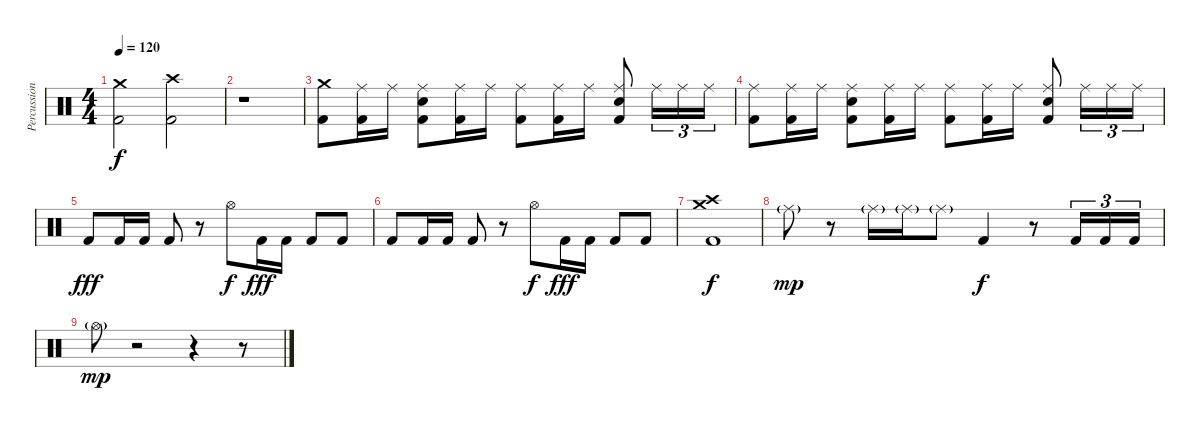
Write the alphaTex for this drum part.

\track ("Percussions" "Percussion") {instrument percussion}
\staff {score}
\articulation defaults
\ts (4 4)
\tempo 120
\clef neutral
\ks c
("Crash medium (hit)" "Kick (hit) 2").2{dy f} ("Crash high (hit)" "Kick (hit) 2").2 |
r.1 |
("Crash medium (hit)" "Kick (hit) 2").8 ("Ride (middle)" "Kick (hit) 2").16 "Ride (middle)".16 ("Ride (middle)" "Electric Snare (hit)" "Kick (hit) 2").8 ("Ride (middle)" "Kick (hit) 2").16 "Ride (middle)".16 ("Ride (middle)" "Kick (hit) 2").8 ("Ride (middle)" "Kick (hit) 2").16 "Ride (middle)".16 ("Ride (middle)" "Electric Snare (hit)" "Kick (hit) 2").8 "Ride (middle)".16{tu (3 2)} "Ride (middle)".16{tu (3 2)} "Ride (middle)".16{tu (3 2)} |
("Ride (middle)" "Kick (hit) 2").8 ("Ride (middle)" "Kick (hit) 2").16 "Ride (middle)".16 ("Ride (middle)" "Electric Snare (hit)" "Kick (hit) 2").8 ("Ride (middle)" "Kick (hit) 2").16 "Ride (middle)".16 ("Ride (middle)" "Kick (hit) 2").8 ("Ride (middle)" "Kick (hit) 2").16 "Ride (middle)".16 ("Ride (middle)" "Electric Snare (hit)" "Kick (hit) 2").8 "Ride (middle)".16{tu (3 2)} "Ride (middle)".16{tu (3 2)} "Ride (middle)".16{tu (3 2)} |
"Kick (hit) 2".8{dy fff} "Kick (hit) 2".16 "Kick (hit) 2".16 "Kick (hit) 2".8 r.8 "Hi-Hat (open)".8{dy f} "Kick (hit) 2".16{dy fff} "Kick (hit) 2".16 "Kick (hit) 2".8 "Kick (hit) 2".8 |
"Kick (hit) 2".8 "Kick (hit) 2".16 "Kick (hit) 2".16 "Kick (hit) 2".8 r.8 "Hi-Hat (open)".8{dy f} "Kick (hit) 2".16{dy fff} "Kick (hit) 2".16 "Kick (hit) 2".8 "Kick (hit) 2".8 |
("Crash medium (hit)" "Crash high (hit)" "Kick (hit) 2").1{dy f} |
"Ride (middle)"{g}.8{dy mp} r.8 "Ride (middle)"{g}.16 "Ride (middle)"{g}.16 "Ride (middle)"{g}.8 "Kick (hit) 2".4{dy f} r.8 "Kick (hit) 2".16{tu (3 2)} "Kick (hit) 2".16{tu (3 2)} "Kick (hit) 2".16{tu (3 2)} |
"Hi-Hat (open)"{g}.8{dy mp} r.2 r.4 r.8
